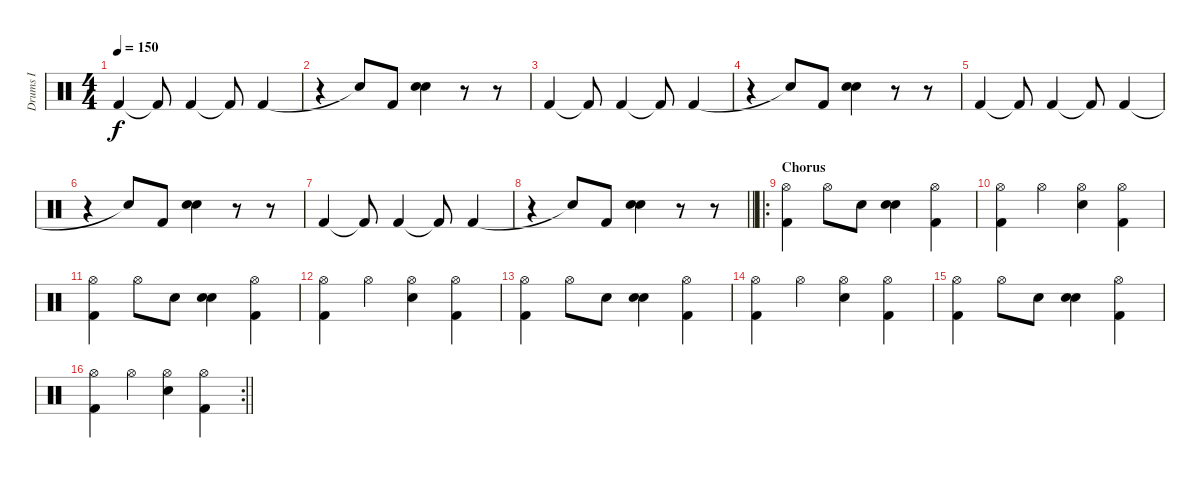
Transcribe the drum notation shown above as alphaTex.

\track ("Drums I" "Drums I") {instrument percussion}
\staff {score}
\articulation defaults
\ts (4 4)
\tempo 150
\clef neutral
\ks c "Kick (hit) 2".4{dy f} "Kick (hit) 2"{t}.8 "Kick (hit) 2".4 "Kick (hit) 2"{t}.8 "Kick (hit) 2".4
|
r.4 "Snare (hit)"{t}.8 "Kick (hit) 2".8 ("Snare (hit) 2" "Electric Snare (hit)").4 r.8 r.8 |
"Kick (hit) 2".4 "Kick (hit) 2"{t}.8 "Kick (hit) 2".4 "Kick (hit) 2"{t}.8 "Kick (hit) 2".4 |
r.4 "Snare (hit)"{t}.8 "Kick (hit) 2".8 ("Snare (hit) 2" "Electric Snare (hit)").4 r.8 r.8 |
"Kick (hit) 2".4 "Kick (hit) 2"{t}.8 "Kick (hit) 2".4 "Kick (hit) 2"{t}.8 "Kick (hit) 2".4 |
r.4 "Snare (hit)"{t}.8 "Kick (hit) 2".8 ("Snare (hit) 2" "Electric Snare (hit)").4 r.8 r.8 |
"Kick (hit) 2".4 "Kick (hit) 2"{t}.8 "Kick (hit) 2".4 "Kick (hit) 2"{t}.8 "Kick (hit) 2".4 |
\barLineRight lightlight
r.4 "Snare (hit)"{t}.8 "Kick (hit) 2".8 ("Snare (hit) 2" "Electric Snare (hit)").4 r.8 r.8 |
\ro
\section ("" "Chorus")
("Hi-Hat (open)" "Kick (hit) 2").4 "Hi-Hat (open)".8 "Snare (hit) 2".8 ("Snare (hit) 2" "Electric Snare (hit)").4 ("Hi-Hat (open)" "Kick (hit) 2").4 |
("Hi-Hat (open)" "Kick (hit) 2").4 "Hi-Hat (open)".4 ("Hi-Hat (open)" "Electric Snare (hit)").4 ("Hi-Hat (open)" "Kick (hit) 2").4 |
("Hi-Hat (open)" "Kick (hit) 2").4 "Hi-Hat (open)".8 "Snare (hit) 2".8 ("Snare (hit) 2" "Electric Snare (hit)").4 ("Hi-Hat (open)" "Kick (hit) 2").4 |
("Hi-Hat (open)" "Kick (hit) 2").4 "Hi-Hat (open)".4 ("Hi-Hat (open)" "Electric Snare (hit)").4 ("Hi-Hat (open)" "Kick (hit) 2").4 |
("Hi-Hat (open)" "Kick (hit) 2").4 "Hi-Hat (open)".8 "Snare (hit) 2".8 ("Snare (hit) 2" "Electric Snare (hit)").4 ("Hi-Hat (open)" "Kick (hit) 2").4 |
("Hi-Hat (open)" "Kick (hit) 2").4 "Hi-Hat (open)".4 ("Hi-Hat (open)" "Electric Snare (hit)").4 ("Hi-Hat (open)" "Kick (hit) 2").4 |
("Hi-Hat (open)" "Kick (hit) 2").4 "Hi-Hat (open)".8 "Snare (hit) 2".8 ("Snare (hit) 2" "Electric Snare (hit)").4 ("Hi-Hat (open)" "Kick (hit) 2").4 |
\rc 2
\barLineRight lightlight
("Hi-Hat (open)" "Kick (hit) 2").4 "Hi-Hat (open)".4 ("Hi-Hat (open)" "Electric Snare (hit)").4 ("Hi-Hat (open)" "Kick (hit) 2").4
